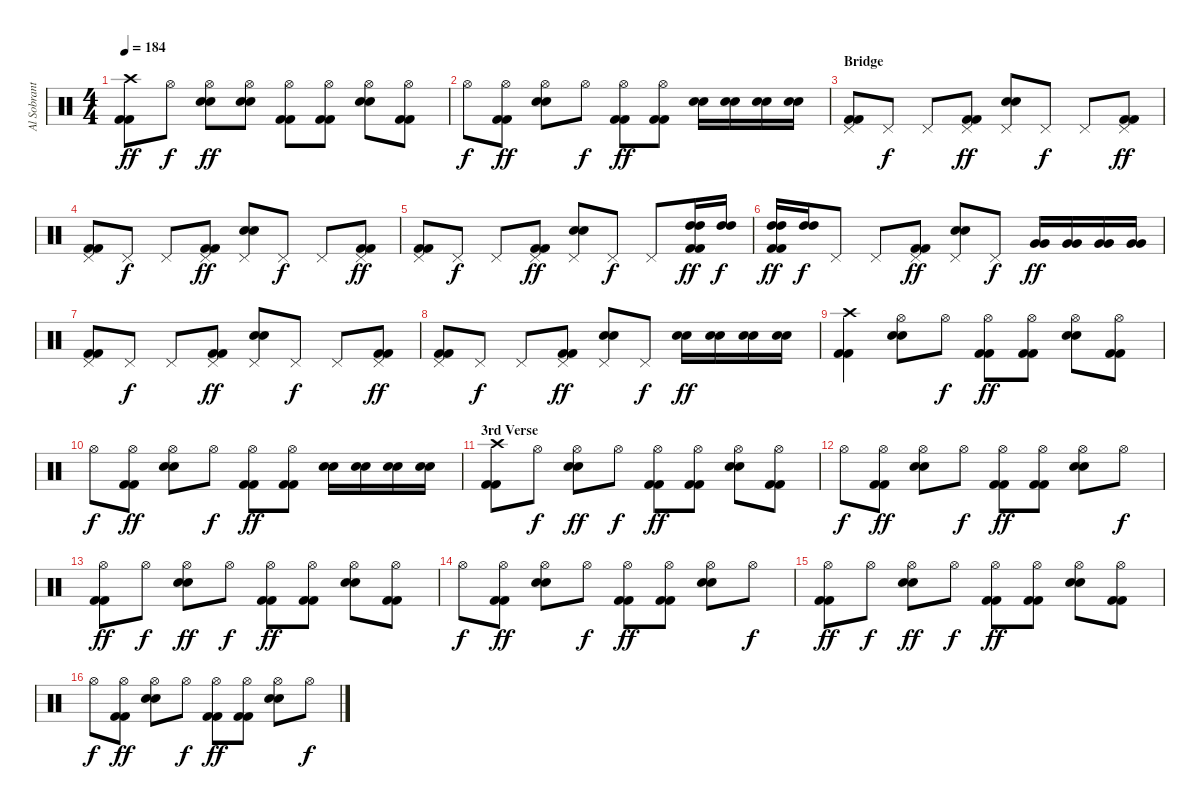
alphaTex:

\track ("Al Sobrante (Drums)" "Al Sobrant") {instrument percussion}
\staff {score}
\articulation defaults
\ts (4 4)
\tempo 184
\clef neutral
\ks c
("Kick (hit) 2" "Kick (hit) 2" "Crash high (hit)").8{dy ff} "Hi-Hat (open)".8{dy f} ("Electric Snare (hit)" "Electric Snare (hit)" "Hi-Hat (open)").8{dy ff} ("Electric Snare (hit)" "Electric Snare (hit)" "Hi-Hat (open)").8 ("Kick (hit) 2" "Kick (hit) 2" "Hi-Hat (open)").8 ("Kick (hit) 2" "Kick (hit) 2" "Hi-Hat (open)").8 ("Electric Snare (hit)" "Electric Snare (hit)" "Hi-Hat (open)").8 ("Kick (hit) 2" "Kick (hit) 2" "Hi-Hat (open)").8 |
"Hi-Hat (open)".8{dy f} ("Kick (hit) 2" "Kick (hit) 2" "Hi-Hat (open)").8{dy ff} ("Electric Snare (hit)" "Electric Snare (hit)" "Hi-Hat (open)").8 "Hi-Hat (open)".8{dy f} ("Kick (hit) 2" "Kick (hit) 2" "Hi-Hat (open)").8{dy ff} ("Kick (hit) 2" "Kick (hit) 2" "Hi-Hat (open)").8 ("Electric Snare (hit)" "Electric Snare (hit)").16 ("Electric Snare (hit)" "Electric Snare (hit)").16 ("Electric Snare (hit)" "Electric Snare (hit)").16 ("Electric Snare (hit)" "Electric Snare (hit)").16 |
\section ("" "Bridge")
("Kick (hit) 2" "Kick (hit) 2" "Pedal Hi-Hat (hit)").8 "Pedal Hi-Hat (hit)".8{dy f} "Pedal Hi-Hat (hit)".8 ("Kick (hit) 2" "Kick (hit) 2" "Pedal Hi-Hat (hit)").8{dy ff} ("Electric Snare (hit)" "Electric Snare (hit)" "Pedal Hi-Hat (hit)").8 "Pedal Hi-Hat (hit)".8{dy f} "Pedal Hi-Hat (hit)".8 ("Kick (hit) 2" "Kick (hit) 2" "Pedal Hi-Hat (hit)").8{dy ff} |
("Kick (hit) 2" "Kick (hit) 2" "Pedal Hi-Hat (hit)").8 "Pedal Hi-Hat (hit)".8{dy f} "Pedal Hi-Hat (hit)".8 ("Kick (hit) 2" "Kick (hit) 2" "Pedal Hi-Hat (hit)").8{dy ff} ("Electric Snare (hit)" "Electric Snare (hit)" "Pedal Hi-Hat (hit)").8 "Pedal Hi-Hat (hit)".8{dy f} "Pedal Hi-Hat (hit)".8 ("Kick (hit) 2" "Kick (hit) 2" "Pedal Hi-Hat (hit)").8{dy ff} |
("Kick (hit) 2" "Kick (hit) 2" "Pedal Hi-Hat (hit)").8 "Pedal Hi-Hat (hit)".8{dy f} "Pedal Hi-Hat (hit)".8 ("Kick (hit) 2" "Kick (hit) 2" "Pedal Hi-Hat (hit)").8{dy ff} ("Electric Snare (hit)" "Electric Snare (hit)" "Pedal Hi-Hat (hit)").8 "Pedal Hi-Hat (hit)".8{dy f} "Pedal Hi-Hat (hit)".8 ("Kick (hit) 2" "Kick (hit) 2" "High Tom (hit)" "High Tom (hit)").16{dy ff} ("High Tom (hit)" "High Tom (hit)").16{dy f} |
("Kick (hit) 2" "Kick (hit) 2" "High Tom (hit)" "High Tom (hit)").16{dy ff} ("High Tom (hit)" "High Tom (hit)").16{dy f} "Pedal Hi-Hat (hit)".8 "Pedal Hi-Hat (hit)".8 ("Kick (hit) 2" "Kick (hit) 2" "Pedal Hi-Hat (hit)").8{dy ff} ("Electric Snare (hit)" "Electric Snare (hit)" "Pedal Hi-Hat (hit)").8 "Pedal Hi-Hat (hit)".8{dy f} ("Very Low Tom (hit)" "Very Low Tom (hit)").16{dy ff} ("Very Low Tom (hit)" "Very Low Tom (hit)").16 ("Very Low Tom (hit)" "Very Low Tom (hit)").16 ("Very Low Tom (hit)" "Very Low Tom (hit)").16 |
("Kick (hit) 2" "Kick (hit) 2" "Pedal Hi-Hat (hit)").8 "Pedal Hi-Hat (hit)".8{dy f} "Pedal Hi-Hat (hit)".8 ("Kick (hit) 2" "Kick (hit) 2" "Pedal Hi-Hat (hit)").8{dy ff} ("Electric Snare (hit)" "Electric Snare (hit)" "Pedal Hi-Hat (hit)").8 "Pedal Hi-Hat (hit)".8{dy f} "Pedal Hi-Hat (hit)".8 ("Kick (hit) 2" "Kick (hit) 2" "Pedal Hi-Hat (hit)").8{dy ff} |
("Kick (hit) 2" "Kick (hit) 2" "Pedal Hi-Hat (hit)").8 "Pedal Hi-Hat (hit)".8{dy f} "Pedal Hi-Hat (hit)".8 ("Kick (hit) 2" "Kick (hit) 2" "Pedal Hi-Hat (hit)").8{dy ff} ("Electric Snare (hit)" "Electric Snare (hit)" "Pedal Hi-Hat (hit)").8 "Pedal Hi-Hat (hit)".8{dy f} ("Electric Snare (hit)" "Electric Snare (hit)").16{dy ff} ("Electric Snare (hit)" "Electric Snare (hit)").16 ("Electric Snare (hit)" "Electric Snare (hit)").16 ("Electric Snare (hit)" "Electric Snare (hit)").16 |
("Kick (hit) 2" "Kick (hit) 2" "Crash high (hit)").4 ("Electric Snare (hit)" "Electric Snare (hit)" "Hi-Hat (open)").8 "Hi-Hat (open)".8{dy f} ("Kick (hit) 2" "Kick (hit) 2" "Hi-Hat (open)").8{dy ff} ("Kick (hit) 2" "Kick (hit) 2" "Hi-Hat (open)").8 ("Electric Snare (hit)" "Electric Snare (hit)" "Hi-Hat (open)").8 ("Kick (hit) 2" "Kick (hit) 2" "Hi-Hat (open)").8 |
"Hi-Hat (open)".8{dy f} ("Kick (hit) 2" "Kick (hit) 2" "Hi-Hat (open)").8{dy ff} ("Electric Snare (hit)" "Electric Snare (hit)" "Hi-Hat (open)").8 "Hi-Hat (open)".8{dy f} ("Kick (hit) 2" "Kick (hit) 2" "Hi-Hat (open)").8{dy ff} ("Kick (hit) 2" "Kick (hit) 2" "Hi-Hat (open)").8 ("Electric Snare (hit)" "Electric Snare (hit)").16 ("Electric Snare (hit)" "Electric Snare (hit)").16 ("Electric Snare (hit)" "Electric Snare (hit)").16 ("Electric Snare (hit)" "Electric Snare (hit)").16 |
\section ("" "3rd Verse")
("Kick (hit) 2" "Kick (hit) 2" "Crash high (hit)").8 "Hi-Hat (open)".8{dy f} ("Electric Snare (hit)" "Electric Snare (hit)" "Hi-Hat (open)").8{dy ff} "Hi-Hat (open)".8{dy f} ("Kick (hit) 2" "Kick (hit) 2" "Hi-Hat (open)").8{dy ff} ("Kick (hit) 2" "Kick (hit) 2" "Hi-Hat (open)").8 ("Electric Snare (hit)" "Electric Snare (hit)" "Hi-Hat (open)").8 ("Kick (hit) 2" "Kick (hit) 2" "Hi-Hat (open)").8 |
"Hi-Hat (open)".8{dy f} ("Kick (hit) 2" "Kick (hit) 2" "Hi-Hat (open)").8{dy ff} ("Electric Snare (hit)" "Electric Snare (hit)" "Hi-Hat (open)").8 "Hi-Hat (open)".8{dy f} ("Kick (hit) 2" "Kick (hit) 2" "Hi-Hat (open)").8{dy ff} ("Kick (hit) 2" "Kick (hit) 2" "Hi-Hat (open)").8 ("Electric Snare (hit)" "Electric Snare (hit)" "Hi-Hat (open)").8 "Hi-Hat (open)".8{dy f} |
("Kick (hit) 2" "Kick (hit) 2" "Hi-Hat (open)").8{dy ff} "Hi-Hat (open)".8{dy f} ("Electric Snare (hit)" "Electric Snare (hit)" "Hi-Hat (open)").8{dy ff} "Hi-Hat (open)".8{dy f} ("Kick (hit) 2" "Kick (hit) 2" "Hi-Hat (open)").8{dy ff} ("Kick (hit) 2" "Kick (hit) 2" "Hi-Hat (open)").8 ("Electric Snare (hit)" "Electric Snare (hit)" "Hi-Hat (open)").8 ("Kick (hit) 2" "Kick (hit) 2" "Hi-Hat (open)").8 |
"Hi-Hat (open)".8{dy f} ("Kick (hit) 2" "Kick (hit) 2" "Hi-Hat (open)").8{dy ff} ("Electric Snare (hit)" "Electric Snare (hit)" "Hi-Hat (open)").8 "Hi-Hat (open)".8{dy f} ("Kick (hit) 2" "Kick (hit) 2" "Hi-Hat (open)").8{dy ff} ("Kick (hit) 2" "Kick (hit) 2" "Hi-Hat (open)").8 ("Electric Snare (hit)" "Electric Snare (hit)" "Hi-Hat (open)").8 "Hi-Hat (open)".8{dy f} |
("Kick (hit) 2" "Kick (hit) 2" "Hi-Hat (open)").8{dy ff} "Hi-Hat (open)".8{dy f} ("Electric Snare (hit)" "Electric Snare (hit)" "Hi-Hat (open)").8{dy ff} "Hi-Hat (open)".8{dy f} ("Kick (hit) 2" "Kick (hit) 2" "Hi-Hat (open)").8{dy ff} ("Kick (hit) 2" "Kick (hit) 2" "Hi-Hat (open)").8 ("Electric Snare (hit)" "Electric Snare (hit)" "Hi-Hat (open)").8 ("Kick (hit) 2" "Kick (hit) 2" "Hi-Hat (open)").8 |
"Hi-Hat (open)".8{dy f} ("Kick (hit) 2" "Kick (hit) 2" "Hi-Hat (open)").8{dy ff} ("Electric Snare (hit)" "Electric Snare (hit)" "Hi-Hat (open)").8 "Hi-Hat (open)".8{dy f} ("Kick (hit) 2" "Kick (hit) 2" "Hi-Hat (open)").8{dy ff} ("Kick (hit) 2" "Kick (hit) 2" "Hi-Hat (open)").8 ("Electric Snare (hit)" "Electric Snare (hit)" "Hi-Hat (open)").8 "Hi-Hat (open)".8{dy f}
